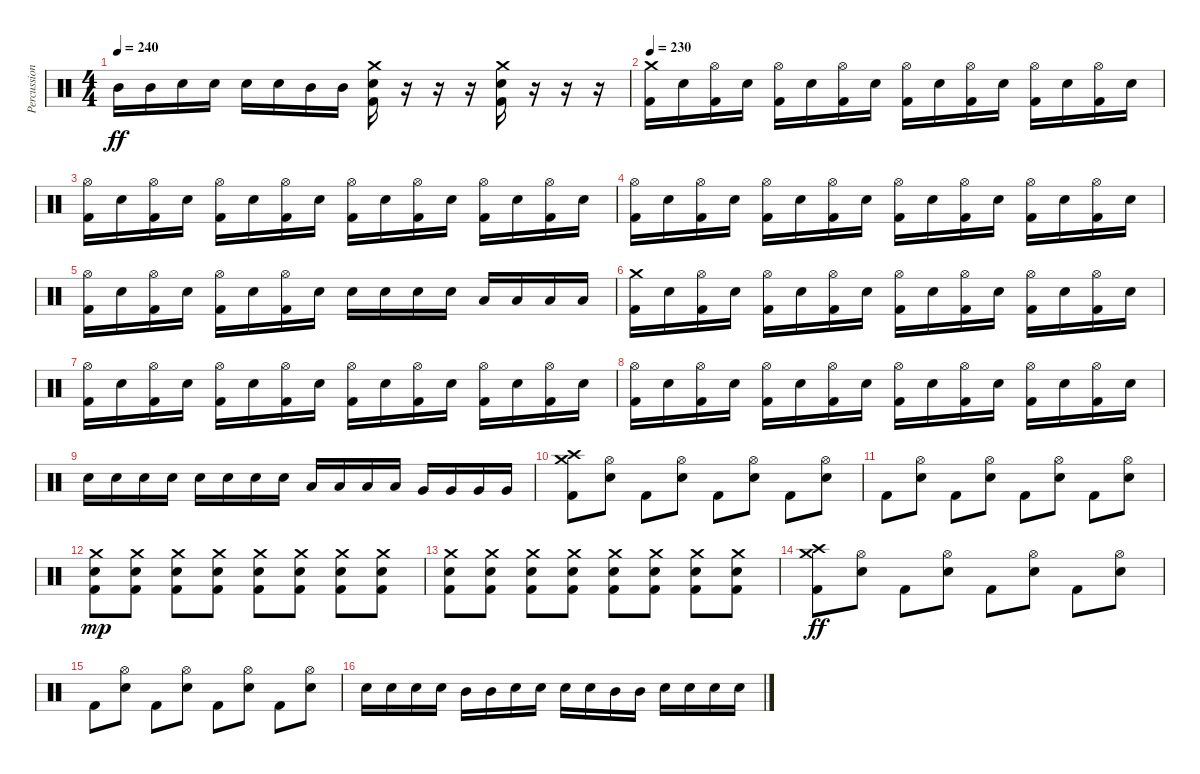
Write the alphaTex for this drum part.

\track ("Percussion" "Percussion") {instrument percussion}
\staff {score}
\articulation defaults
\ts (4 4)
\tempo 240
\clef neutral
\ks c "Mid Tom (hit)".16{dy ff} "Mid Tom (hit)".16 "Electric Snare (hit)".16 "Electric Snare (hit)".16 "Electric Snare (hit)".16 "Electric Snare (hit)".16 "Mid Tom (hit)".16 "Mid Tom (hit)".16
("Kick (hit) 2" "Electric Snare (hit)" "Crash medium (hit)").16 r.16 r.16 r.16 ("Kick (hit) 2" "Electric Snare (hit)" "Crash medium (hit)").16 r.16 r.16 r.16 |
\tempo 230
("Kick (hit) 2" "Crash medium (hit)").16 "Electric Snare (hit)".16 ("Kick (hit) 2" "Hi-Hat (open)").16 "Electric Snare (hit)".16 ("Kick (hit) 2" "Hi-Hat (open)").16 "Electric Snare (hit)".16 ("Kick (hit) 2" "Hi-Hat (open)").16 "Electric Snare (hit)".16 ("Kick (hit) 2" "Hi-Hat (open)").16 "Electric Snare (hit)".16 ("Kick (hit) 2" "Hi-Hat (open)").16 "Electric Snare (hit)".16 ("Kick (hit) 2" "Hi-Hat (open)").16 "Electric Snare (hit)".16 ("Kick (hit) 2" "Hi-Hat (open)").16 "Electric Snare (hit)".16 |
("Kick (hit) 2" "Hi-Hat (open)").16 "Electric Snare (hit)".16 ("Kick (hit) 2" "Hi-Hat (open)").16 "Electric Snare (hit)".16 ("Kick (hit) 2" "Hi-Hat (open)").16 "Electric Snare (hit)".16 ("Kick (hit) 2" "Hi-Hat (open)").16 "Electric Snare (hit)".16 ("Kick (hit) 2" "Hi-Hat (open)").16 "Electric Snare (hit)".16 ("Kick (hit) 2" "Hi-Hat (open)").16 "Electric Snare (hit)".16 ("Kick (hit) 2" "Hi-Hat (open)").16 "Electric Snare (hit)".16 ("Kick (hit) 2" "Hi-Hat (open)").16 "Electric Snare (hit)".16 |
("Kick (hit) 2" "Hi-Hat (open)").16 "Electric Snare (hit)".16 ("Kick (hit) 2" "Hi-Hat (open)").16 "Electric Snare (hit)".16 ("Kick (hit) 2" "Hi-Hat (open)").16 "Electric Snare (hit)".16 ("Kick (hit) 2" "Hi-Hat (open)").16 "Electric Snare (hit)".16 ("Kick (hit) 2" "Hi-Hat (open)").16 "Electric Snare (hit)".16 ("Kick (hit) 2" "Hi-Hat (open)").16 "Electric Snare (hit)".16 ("Kick (hit) 2" "Hi-Hat (open)").16 "Electric Snare (hit)".16 ("Kick (hit) 2" "Hi-Hat (open)").16 "Electric Snare (hit)".16 |
("Kick (hit) 2" "Hi-Hat (open)").16 "Electric Snare (hit)".16 ("Kick (hit) 2" "Hi-Hat (open)").16 "Electric Snare (hit)".16 ("Kick (hit) 2" "Hi-Hat (open)").16 "Electric Snare (hit)".16 ("Kick (hit) 2" "Hi-Hat (open)").16 "Electric Snare (hit)".16 "Electric Snare (hit)".16 "Electric Snare (hit)".16 "Electric Snare (hit)".16 "Electric Snare (hit)".16 "Low Tom (hit)".16 "Low Tom (hit)".16 "Low Tom (hit)".16 "Low Tom (hit)".16 |
("Kick (hit) 2" "Crash medium (hit)").16 "Electric Snare (hit)".16 ("Kick (hit) 2" "Hi-Hat (open)").16 "Electric Snare (hit)".16 ("Kick (hit) 2" "Hi-Hat (open)").16 "Electric Snare (hit)".16 ("Kick (hit) 2" "Hi-Hat (open)").16 "Electric Snare (hit)".16 ("Kick (hit) 2" "Hi-Hat (open)").16 "Electric Snare (hit)".16 ("Kick (hit) 2" "Hi-Hat (open)").16 "Electric Snare (hit)".16 ("Kick (hit) 2" "Hi-Hat (open)").16 "Electric Snare (hit)".16 ("Kick (hit) 2" "Hi-Hat (open)").16 "Electric Snare (hit)".16 |
("Kick (hit) 2" "Hi-Hat (open)").16 "Electric Snare (hit)".16 ("Kick (hit) 2" "Hi-Hat (open)").16 "Electric Snare (hit)".16 ("Kick (hit) 2" "Hi-Hat (open)").16 "Electric Snare (hit)".16 ("Kick (hit) 2" "Hi-Hat (open)").16 "Electric Snare (hit)".16 ("Kick (hit) 2" "Hi-Hat (open)").16 "Electric Snare (hit)".16 ("Kick (hit) 2" "Hi-Hat (open)").16 "Electric Snare (hit)".16 ("Kick (hit) 2" "Hi-Hat (open)").16 "Electric Snare (hit)".16 ("Kick (hit) 2" "Hi-Hat (open)").16 "Electric Snare (hit)".16 |
("Kick (hit) 2" "Hi-Hat (open)").16 "Electric Snare (hit)".16 ("Kick (hit) 2" "Hi-Hat (open)").16 "Electric Snare (hit)".16 ("Kick (hit) 2" "Hi-Hat (open)").16 "Electric Snare (hit)".16 ("Kick (hit) 2" "Hi-Hat (open)").16 "Electric Snare (hit)".16 ("Kick (hit) 2" "Hi-Hat (open)").16 "Electric Snare (hit)".16 ("Kick (hit) 2" "Hi-Hat (open)").16 "Electric Snare (hit)".16 ("Kick (hit) 2" "Hi-Hat (open)").16 "Electric Snare (hit)".16 ("Kick (hit) 2" "Hi-Hat (open)").16 "Electric Snare (hit)".16 |
"Electric Snare (hit)".16 "Electric Snare (hit)".16 "Electric Snare (hit)".16 "Electric Snare (hit)".16 "Electric Snare (hit)".16 "Electric Snare (hit)".16 "Electric Snare (hit)".16 "Electric Snare (hit)".16 "Low Tom (hit)".16 "Low Tom (hit)".16 "Low Tom (hit)".16 "Low Tom (hit)".16 "Very Low Tom (hit)".16 "Very Low Tom (hit)".16 "Very Low Tom (hit)".16 "Very Low Tom (hit)".16 |
("Kick (hit) 2" "Crash medium (hit)" "Crash high (hit)").8 ("Electric Snare (hit)" "Hi-Hat (open)").8 "Kick (hit) 2".8 ("Electric Snare (hit)" "Hi-Hat (open)").8 "Kick (hit) 2".8 ("Electric Snare (hit)" "Hi-Hat (open)").8 "Kick (hit) 2".8 ("Electric Snare (hit)" "Hi-Hat (open)").8 |
"Kick (hit) 2".8 ("Electric Snare (hit)" "Hi-Hat (open)").8 "Kick (hit) 2".8 ("Electric Snare (hit)" "Hi-Hat (open)").8 "Kick (hit) 2".8 ("Electric Snare (hit)" "Hi-Hat (open)").8 "Kick (hit) 2".8 ("Electric Snare (hit)" "Hi-Hat (open)").8 |
("Kick (hit) 2" "Electric Snare (hit)" "Crash medium (hit)").8{dy mp} ("Kick (hit) 2" "Electric Snare (hit)" "Crash medium (hit)").8 ("Kick (hit) 2" "Electric Snare (hit)" "Crash medium (hit)").8 ("Kick (hit) 2" "Electric Snare (hit)" "Crash medium (hit)").8 ("Kick (hit) 2" "Electric Snare (hit)" "Crash medium (hit)").8 ("Kick (hit) 2" "Electric Snare (hit)" "Crash medium (hit)").8 ("Kick (hit) 2" "Electric Snare (hit)" "Crash medium (hit)").8 ("Kick (hit) 2" "Electric Snare (hit)" "Crash medium (hit)").8 |
("Kick (hit) 2" "Electric Snare (hit)" "Crash medium (hit)").8 ("Kick (hit) 2" "Electric Snare (hit)" "Crash medium (hit)").8 ("Kick (hit) 2" "Electric Snare (hit)" "Crash medium (hit)").8 ("Kick (hit) 2" "Electric Snare (hit)" "Crash medium (hit)").8 ("Kick (hit) 2" "Electric Snare (hit)" "Crash medium (hit)").8 ("Kick (hit) 2" "Electric Snare (hit)" "Crash medium (hit)").8 ("Kick (hit) 2" "Electric Snare (hit)" "Crash medium (hit)").8 ("Kick (hit) 2" "Electric Snare (hit)" "Crash medium (hit)").8 |
("Kick (hit) 2" "Crash medium (hit)" "Crash high (hit)").8{dy ff} ("Electric Snare (hit)" "Hi-Hat (open)").8 "Kick (hit) 2".8 ("Electric Snare (hit)" "Hi-Hat (open)").8 "Kick (hit) 2".8 ("Electric Snare (hit)" "Hi-Hat (open)").8 "Kick (hit) 2".8 ("Electric Snare (hit)" "Hi-Hat (open)").8 |
"Kick (hit) 2".8 ("Electric Snare (hit)" "Hi-Hat (open)").8 "Kick (hit) 2".8 ("Electric Snare (hit)" "Hi-Hat (open)").8 "Kick (hit) 2".8 ("Electric Snare (hit)" "Hi-Hat (open)").8 "Kick (hit) 2".8 ("Electric Snare (hit)" "Hi-Hat (open)").8 |
"Electric Snare (hit)".16 "Electric Snare (hit)".16 "Electric Snare (hit)".16 "Electric Snare (hit)".16 "Mid Tom (hit)".16 "Mid Tom (hit)".16 "Electric Snare (hit)".16 "Electric Snare (hit)".16 "Electric Snare (hit)".16 "Electric Snare (hit)".16 "Mid Tom (hit)".16 "Mid Tom (hit)".16 "Electric Snare (hit)".16 "Electric Snare (hit)".16 "Electric Snare (hit)".16 "Electric Snare (hit)".16
